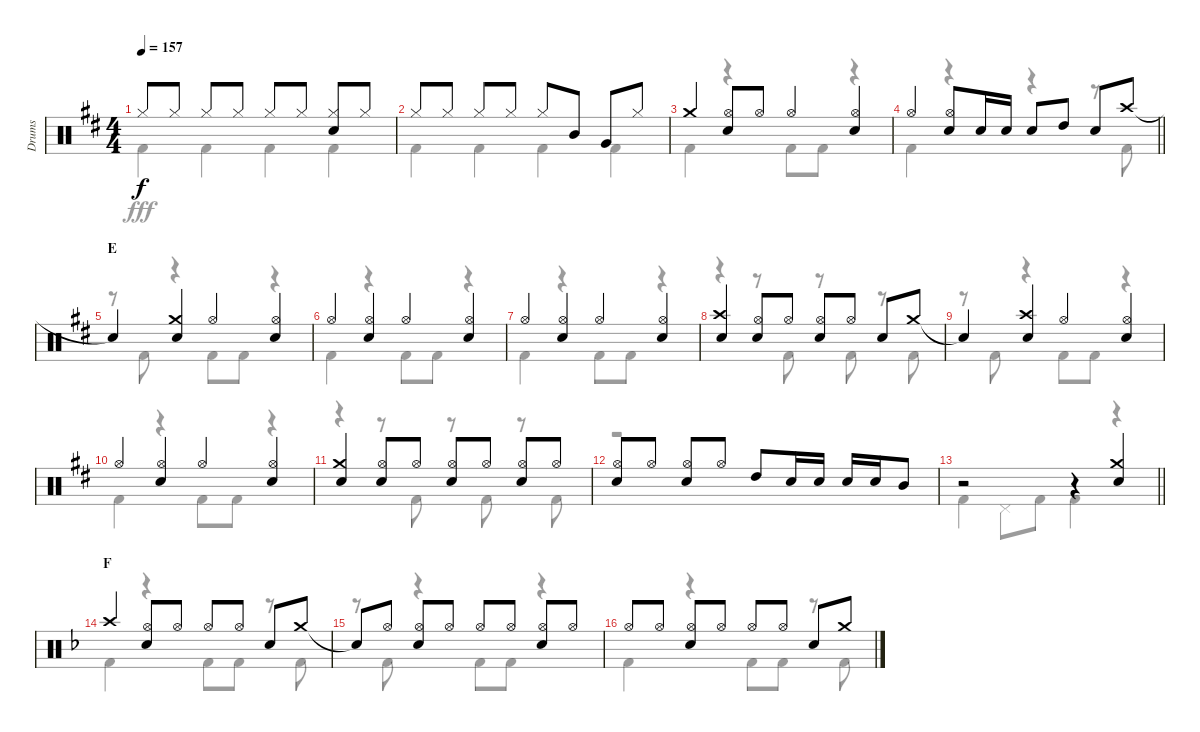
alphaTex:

\track ("Drums" "Drums") {instrument percussion}
\staff {score}
\articulation defaults
\voice
\ts (4 4)
\tempo 157
\clef neutral
\ks d "Hi-Hat (closed)".8{dy f} "Hi-Hat (closed)".8 "Hi-Hat (closed)".8 "Hi-Hat (closed)".8 "Hi-Hat (closed)".8 "Hi-Hat (closed)".8
("Hi-Hat (closed)" "Snare (hit) 2").8 "Hi-Hat (closed)".8 |
"Hi-Hat (closed)".8 "Hi-Hat (closed)".8 "Hi-Hat (closed)".8 "Hi-Hat (closed)".8 "Hi-Hat (closed)".8 "Mid Tom (hit)".8 "Very Low Tom (hit)".8 "Hi-Hat (closed)".8 |
"Crash medium (hit)".4 ("Hi-Hat (open)" "Snare (hit) 2").8 "Hi-Hat (open)".8 "Hi-Hat (open)".4 ("Hi-Hat (open)" "Snare (hit) 2").4 |
\barLineRight lightlight "Hi-Hat (open)".4
("Hi-Hat (open)" "Snare (hit) 2").8 "Snare (hit) 2".16 "Snare (hit) 2".16 "Snare (hit) 2".8 "High Tom (hit)".8 "Snare (hit) 2".8 "Crash high (hit)".8 |
\section ("" "E")
"Snare (hit)"{t}.4 ("Crash medium (hit)" "Snare (hit) 2").4 "Hi-Hat (open)".4 ("Hi-Hat (open)" "Snare (hit) 2").4 |
"Hi-Hat (open)".4 ("Hi-Hat (open)" "Snare (hit) 2").4 "Hi-Hat (open)".4 ("Hi-Hat (open)" "Snare (hit) 2").4 |
"Hi-Hat (open)".4 ("Hi-Hat (open)" "Snare (hit) 2").4 "Hi-Hat (open)".4 ("Hi-Hat (open)" "Snare (hit) 2").4 |
("Crash high (hit)" "Snare (hit) 2").4 ("Hi-Hat (open)" "Snare (hit) 2").8 "Hi-Hat (open)".8 ("Hi-Hat (open)" "Snare (hit) 2").8 "Hi-Hat (open)".8 "Snare (hit) 2".8 "Crash medium (hit)".8 |
"Snare (hit)"{t}.4 ("Crash high (hit)" "Snare (hit) 2").4 "Hi-Hat (open)".4 ("Hi-Hat (open)" "Snare (hit) 2").4 |
"Hi-Hat (open)".4 ("Hi-Hat (open)" "Snare (hit) 2").4 "Hi-Hat (open)".4 ("Hi-Hat (open)" "Snare (hit) 2").4 |
("Crash medium (hit)" "Snare (hit) 2").4 ("Hi-Hat (open)" "Snare (hit) 2").8 "Hi-Hat (open)".8 ("Hi-Hat (open)" "Snare (hit) 2").8 "Hi-Hat (open)".8 ("Hi-Hat (open)" "Snare (hit) 2").8 "Hi-Hat (open)".8 |
("Hi-Hat (open)" "Snare (hit) 2").8 "Hi-Hat (open)".8 ("Hi-Hat (open)" "Snare (hit) 2").8 "Hi-Hat (open)".8 "High Tom (hit)".8 "Snare (hit) 2".16 "Snare (hit) 2".16 "Snare (hit) 2".16 "Snare (hit) 2".16 "Mid Tom (hit)".8 |
\barLineRight lightlight
r.2 r.4 ("Crash medium (hit)" "Snare (hit) 2").4 |
\section ("" "F")
\ks f "Crash high (hit)".4
("Hi-Hat (open)" "Snare (hit) 2").8 "Hi-Hat (open)".8 "Hi-Hat (open)".8 "Hi-Hat (open)".8 "Snare (hit) 2".8 "Crash medium (hit)".8 |
"Snare (hit)"{t}.8 "Hi-Hat (open)".8 ("Hi-Hat (open)" "Snare (hit) 2").8 "Hi-Hat (open)".8 "Hi-Hat (open)".8 "Hi-Hat (open)".8 ("Hi-Hat (open)" "Snare (hit) 2").8 "Hi-Hat (open)".8 |
"Hi-Hat (open)".8 "Hi-Hat (open)".8 ("Hi-Hat (open)" "Snare (hit) 2").8 "Hi-Hat (open)".8 "Hi-Hat (open)".8 "Hi-Hat (open)".8 "Snare (hit) 2".8 "Crash medium (hit)".8
\voice
\clef neutral
\ottava regular
\simile none
\ks d "Kick (hit) 2".4{dy fff} "Kick (hit) 2".4 "Kick (hit) 2".4 "Kick (hit) 2".4
|
"Kick (hit) 2".4 "Kick (hit) 2".4 "Kick (hit) 2".4 "Kick (hit) 2".4 |
"Kick (hit) 2".4 r.4 "Kick (hit) 2".8 "Kick (hit) 2".8 r.4 |
\barLineRight lightlight "Kick (hit) 2".4
r.4 r.4 r.8 "Kick (hit) 2".8 |
r.8 "Kick (hit) 2".8 r.4 "Kick (hit) 2".8 "Kick (hit) 2".8 r.4 |
"Kick (hit) 2".4 r.4 "Kick (hit) 2".8 "Kick (hit) 2".8 r.4 |
"Kick (hit) 2".4 r.4 "Kick (hit) 2".8 "Kick (hit) 2".8 r.4 |
r.4 r.8 "Kick (hit) 2".8 r.8 "Kick (hit) 2".8 r.8 "Kick (hit) 2".8 |
r.8 "Kick (hit) 2".8 r.4 "Kick (hit) 2".8 "Kick (hit) 2".8 r.4 |
"Kick (hit) 2".4 r.4 "Kick (hit) 2".8 "Kick (hit) 2".8 r.4 |
r.4 r.8 "Kick (hit) 2".8 r.8 "Kick (hit) 2".8 r.8 "Kick (hit) 2".8 |
r.1 |
\barLineRight lightlight "Kick (hit) 2".4 "Pedal Hi-Hat (hit)".8 "Kick (hit) 2".8 "Kick (hit) 2".4
r.4 |
\ks f "Kick (hit) 2".4
r.4 "Kick (hit) 2".8 "Kick (hit) 2".8 r.8 "Kick (hit) 2".8 |
r.8 "Kick (hit) 2".8 r.4 "Kick (hit) 2".8 "Kick (hit) 2".8 r.4 |
"Kick (hit) 2".4 r.4 "Kick (hit) 2".8 "Kick (hit) 2".8 r.8 "Kick (hit) 2".8
